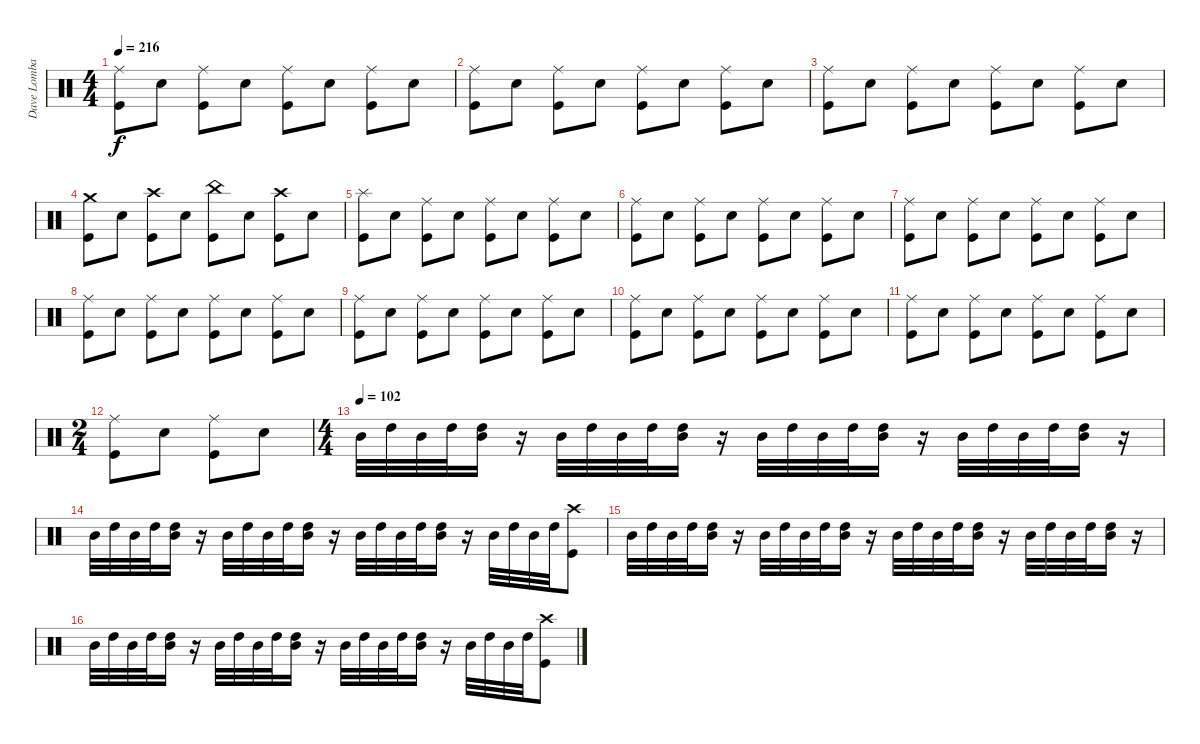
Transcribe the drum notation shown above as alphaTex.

\track ("Dave Lombardo" "Dave Lomba") {instrument percussion}
\staff {score}
\articulation defaults
\ts (4 4)
\tempo 216
\clef neutral
\ks c
("Ride (middle)" "Kick (hit)").8{dy f} "Electric Snare (hit)".8 ("Ride (middle)" "Kick (hit)").8 "Electric Snare (hit)".8 ("Ride (middle)" "Kick (hit)").8 "Electric Snare (hit)".8 ("Ride (middle)" "Kick (hit)").8 "Electric Snare (hit)".8 |
("Ride (middle)" "Kick (hit)").8 "Electric Snare (hit)".8 ("Ride (middle)" "Kick (hit)").8 "Electric Snare (hit)".8 ("Ride (middle)" "Kick (hit)").8 "Electric Snare (hit)".8 ("Ride (middle)" "Kick (hit)").8 "Electric Snare (hit)".8 |
("Ride (middle)" "Kick (hit)").8 "Electric Snare (hit)".8 ("Ride (middle)" "Kick (hit)").8 "Electric Snare (hit)".8 ("Ride (middle)" "Kick (hit)").8 "Electric Snare (hit)".8 ("Ride (middle)" "Kick (hit)").8 "Electric Snare (hit)".8 |
("Crash medium (hit)" "Kick (hit)").8 "Electric Snare (hit)".8 ("Crash high (hit)" "Kick (hit)").8 "Electric Snare (hit)".8 ("China (hit)" "Kick (hit)").8 "Electric Snare (hit)".8 ("Crash high (hit)" "Kick (hit)").8 "Electric Snare (hit)".8 |
("Splash (hit)" "Kick (hit)").8 "Electric Snare (hit)".8 ("Ride (middle)" "Kick (hit)").8 "Electric Snare (hit)".8 ("Ride (middle)" "Kick (hit)").8 "Electric Snare (hit)".8 ("Ride (middle)" "Kick (hit)").8 "Electric Snare (hit)".8 |
("Ride (middle)" "Kick (hit)").8 "Electric Snare (hit)".8 ("Ride (middle)" "Kick (hit)").8 "Electric Snare (hit)".8 ("Ride (middle)" "Kick (hit)").8 "Electric Snare (hit)".8 ("Ride (middle)" "Kick (hit)").8 "Electric Snare (hit)".8 |
("Ride (middle)" "Kick (hit)").8 "Electric Snare (hit)".8 ("Ride (middle)" "Kick (hit)").8 "Electric Snare (hit)".8 ("Ride (middle)" "Kick (hit)").8 "Electric Snare (hit)".8 ("Ride (middle)" "Kick (hit)").8 "Electric Snare (hit)".8 |
("Ride (middle)" "Kick (hit)").8 "Electric Snare (hit)".8 ("Ride (middle)" "Kick (hit)").8 "Electric Snare (hit)".8 ("Ride (middle)" "Kick (hit)").8 "Electric Snare (hit)".8 ("Ride (middle)" "Kick (hit)").8 "Electric Snare (hit)".8 |
("Ride (middle)" "Kick (hit)").8 "Electric Snare (hit)".8 ("Ride (middle)" "Kick (hit)").8 "Electric Snare (hit)".8 ("Ride (middle)" "Kick (hit)").8 "Electric Snare (hit)".8 ("Ride (middle)" "Kick (hit)").8 "Electric Snare (hit)".8 |
("Ride (middle)" "Kick (hit)").8 "Electric Snare (hit)".8 ("Ride (middle)" "Kick (hit)").8 "Electric Snare (hit)".8 ("Ride (middle)" "Kick (hit)").8 "Electric Snare (hit)".8 ("Ride (middle)" "Kick (hit)").8 "Electric Snare (hit)".8 |
("Ride (middle)" "Kick (hit)").8 "Electric Snare (hit)".8 ("Ride (middle)" "Kick (hit)").8 "Electric Snare (hit)".8 ("Ride (middle)" "Kick (hit)").8 "Electric Snare (hit)".8 ("Ride (middle)" "Kick (hit)").8 "Electric Snare (hit)".8 |
\ts (2 4)
("Ride (middle)" "Kick (hit)").8 "Electric Snare (hit)".8 ("Ride (middle)" "Kick (hit)").8 "Electric Snare (hit)".8 |
\ts (4 4)
\tempo (102)
"Mid Tom (hit)".32 "High Tom (hit)".32 "Mid Tom (hit)".32 "High Tom (hit)".32 ("High Tom (hit)" "Mid Tom (hit)").16 r.16 "Mid Tom (hit)".32 "High Tom (hit)".32 "Mid Tom (hit)".32 "High Tom (hit)".32 ("High Tom (hit)" "Mid Tom (hit)").16 r.16 "Mid Tom (hit)".32 "High Tom (hit)".32 "Mid Tom (hit)".32 "High Tom (hit)".32 ("High Tom (hit)" "Mid Tom (hit)").16 r.16 "Mid Tom (hit)".32 "High Tom (hit)".32 "Mid Tom (hit)".32 "High Tom (hit)".32 ("High Tom (hit)" "Mid Tom (hit)").16 r.16 |
"Mid Tom (hit)".32 "High Tom (hit)".32 "Mid Tom (hit)".32 "High Tom (hit)".32 ("High Tom (hit)" "Mid Tom (hit)").16 r.16 "Mid Tom (hit)".32 "High Tom (hit)".32 "Mid Tom (hit)".32 "High Tom (hit)".32 ("High Tom (hit)" "Mid Tom (hit)").16 r.16 "Mid Tom (hit)".32 "High Tom (hit)".32 "Mid Tom (hit)".32 "High Tom (hit)".32 ("High Tom (hit)" "Mid Tom (hit)").16 r.16 "Mid Tom (hit)".32 "High Tom (hit)".32 "Mid Tom (hit)".32 "High Tom (hit)".32 ("Crash high (hit)" "Kick (hit)").8 |
"Mid Tom (hit)".32 "High Tom (hit)".32 "Mid Tom (hit)".32 "High Tom (hit)".32 ("High Tom (hit)" "Mid Tom (hit)").16 r.16 "Mid Tom (hit)".32 "High Tom (hit)".32 "Mid Tom (hit)".32 "High Tom (hit)".32 ("High Tom (hit)" "Mid Tom (hit)").16 r.16 "Mid Tom (hit)".32 "High Tom (hit)".32 "Mid Tom (hit)".32 "High Tom (hit)".32 ("High Tom (hit)" "Mid Tom (hit)").16 r.16 "Mid Tom (hit)".32 "High Tom (hit)".32 "Mid Tom (hit)".32 "High Tom (hit)".32 ("High Tom (hit)" "Mid Tom (hit)").16 r.16 |
"Mid Tom (hit)".32 "High Tom (hit)".32 "Mid Tom (hit)".32 "High Tom (hit)".32 ("High Tom (hit)" "Mid Tom (hit)").16 r.16 "Mid Tom (hit)".32 "High Tom (hit)".32 "Mid Tom (hit)".32 "High Tom (hit)".32 ("High Tom (hit)" "Mid Tom (hit)").16 r.16 "Mid Tom (hit)".32 "High Tom (hit)".32 "Mid Tom (hit)".32 "High Tom (hit)".32 ("High Tom (hit)" "Mid Tom (hit)").16 r.16 "Mid Tom (hit)".32 "High Tom (hit)".32 "Mid Tom (hit)".32 "High Tom (hit)".32 ("Crash high (hit)" "Kick (hit)").8
